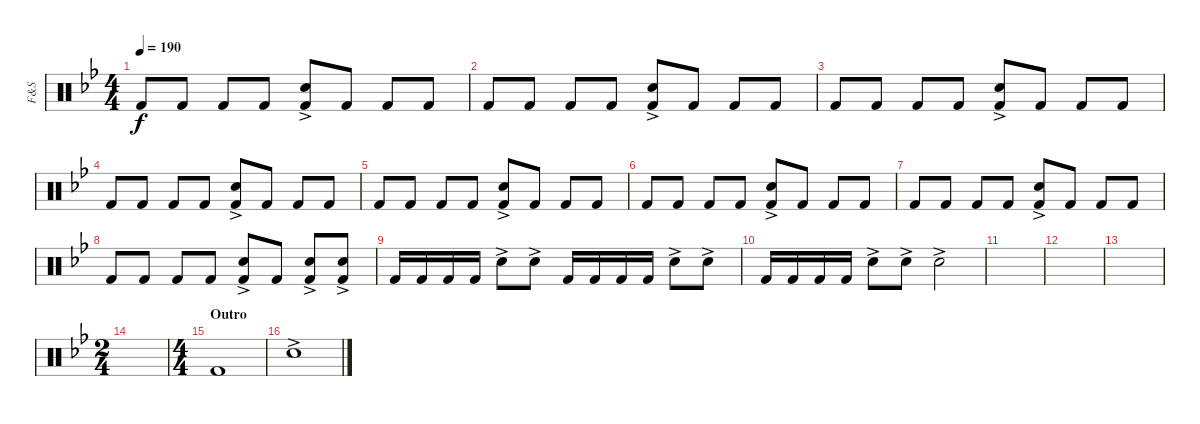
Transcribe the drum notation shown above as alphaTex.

\track ("F&S" "F&S") {instrument percussion}
\staff {score}
\articulation defaults
\ts (4 4)
\tempo 190
\clef neutral
\ks bb "Kick (hit) 2".8{dy f} "Kick (hit) 2".8 "Kick (hit) 2".8 "Kick (hit) 2".8
("Kick (hit) 2" "Snare (hit) 2"{ac}).8 "Kick (hit) 2".8 "Kick (hit) 2".8 "Kick (hit) 2".8 |
"Kick (hit) 2".8 "Kick (hit) 2".8 "Kick (hit) 2".8 "Kick (hit) 2".8 ("Kick (hit) 2" "Snare (hit) 2"{ac}).8 "Kick (hit) 2".8 "Kick (hit) 2".8 "Kick (hit) 2".8 |
"Kick (hit) 2".8 "Kick (hit) 2".8 "Kick (hit) 2".8 "Kick (hit) 2".8 ("Kick (hit) 2" "Snare (hit) 2"{ac}).8 "Kick (hit) 2".8 "Kick (hit) 2".8 "Kick (hit) 2".8 |
"Kick (hit) 2".8 "Kick (hit) 2".8 "Kick (hit) 2".8 "Kick (hit) 2".8 ("Kick (hit) 2" "Snare (hit) 2"{ac}).8 "Kick (hit) 2".8 "Kick (hit) 2".8 "Kick (hit) 2".8 |
"Kick (hit) 2".8 "Kick (hit) 2".8 "Kick (hit) 2".8 "Kick (hit) 2".8 ("Kick (hit) 2" "Snare (hit) 2"{ac}).8 "Kick (hit) 2".8 "Kick (hit) 2".8 "Kick (hit) 2".8 |
"Kick (hit) 2".8 "Kick (hit) 2".8 "Kick (hit) 2".8 "Kick (hit) 2".8 ("Kick (hit) 2" "Snare (hit) 2"{ac}).8 "Kick (hit) 2".8 "Kick (hit) 2".8 "Kick (hit) 2".8 |
"Kick (hit) 2".8 "Kick (hit) 2".8 "Kick (hit) 2".8 "Kick (hit) 2".8 ("Kick (hit) 2" "Snare (hit) 2"{ac}).8 "Kick (hit) 2".8 "Kick (hit) 2".8 "Kick (hit) 2".8 |
"Kick (hit) 2".8 "Kick (hit) 2".8 "Kick (hit) 2".8 "Kick (hit) 2".8 ("Kick (hit) 2" "Snare (hit) 2"{ac}).8 "Kick (hit) 2".8 ("Kick (hit) 2" "Snare (hit) 2"{ac}).8 ("Kick (hit) 2" "Snare (hit) 2"{ac}).8 |
"Kick (hit) 2".16 "Kick (hit) 2".16 "Kick (hit) 2".16 "Kick (hit) 2".16 "Snare (hit) 2"{ac}.8 "Snare (hit) 2"{ac}.8 "Kick (hit) 2".16 "Kick (hit) 2".16 "Kick (hit) 2".16 "Kick (hit) 2".16 "Snare (hit) 2"{ac}.8 "Snare (hit) 2"{ac}.8 |
"Kick (hit) 2".16 "Kick (hit) 2".16 "Kick (hit) 2".16 "Kick (hit) 2".16 "Snare (hit) 2"{ac}.8 "Snare (hit) 2"{ac}.8 "Snare (hit) 2"{ac}.2 |
|
|
|
\ts (2 4)
|
\ts (4 4)
\section ("" "Outro")
"Kick (hit) 2".1 |
"Snare (hit) 2"{ac}.1
